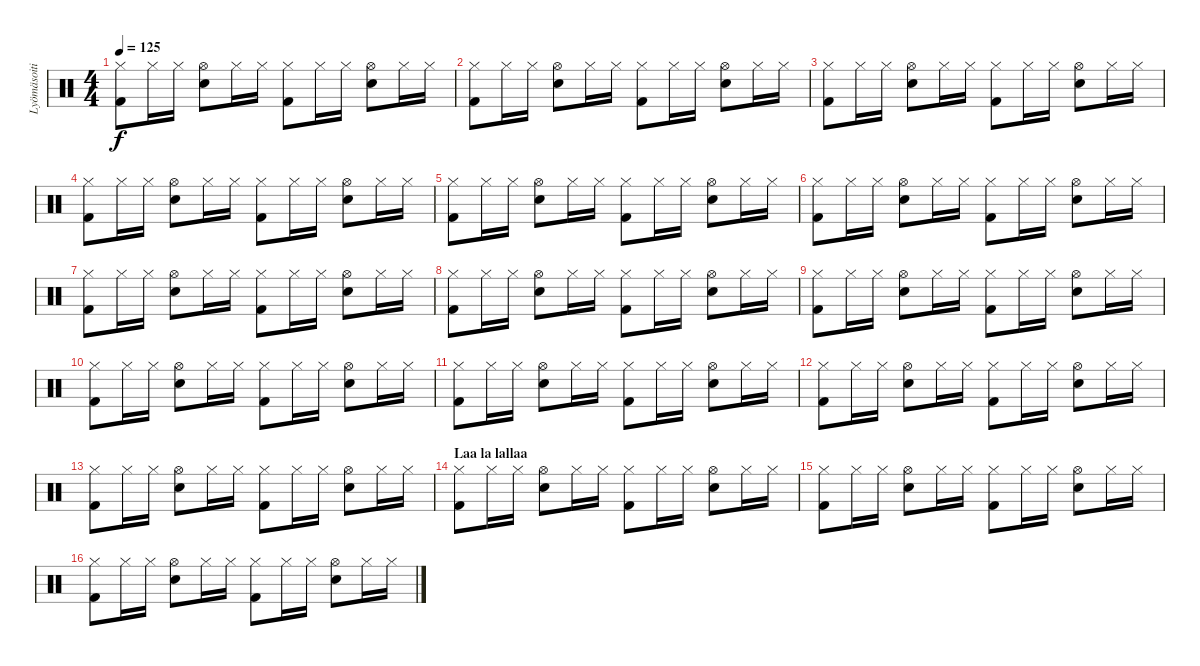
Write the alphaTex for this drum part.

\track ("Lyömäsoitin" "Lyömäsoiti") {instrument percussion}
\staff {score}
\articulation defaults
\ts (4 4)
\tempo 125
\clef neutral
\ks c
("Hi-Hat (closed)" "Kick (hit) 2").8{dy f} "Hi-Hat (closed)".16 "Hi-Hat (closed)".16 ("Hi-Hat (open)" "Snare (hit) 2").8 "Hi-Hat (closed)".16 "Hi-Hat (closed)".16 ("Hi-Hat (closed)" "Kick (hit) 2").8 "Hi-Hat (closed)".16 "Hi-Hat (closed)".16 ("Hi-Hat (open)" "Snare (hit) 2").8 "Hi-Hat (closed)".16 "Hi-Hat (closed)".16 |
("Hi-Hat (closed)" "Kick (hit) 2").8 "Hi-Hat (closed)".16 "Hi-Hat (closed)".16 ("Hi-Hat (open)" "Snare (hit) 2").8 "Hi-Hat (closed)".16 "Hi-Hat (closed)".16 ("Hi-Hat (closed)" "Kick (hit) 2").8 "Hi-Hat (closed)".16 "Hi-Hat (closed)".16 ("Hi-Hat (open)" "Snare (hit) 2").8 "Hi-Hat (closed)".16 "Hi-Hat (closed)".16 |
("Hi-Hat (closed)" "Kick (hit) 2").8 "Hi-Hat (closed)".16 "Hi-Hat (closed)".16 ("Hi-Hat (open)" "Snare (hit) 2").8 "Hi-Hat (closed)".16 "Hi-Hat (closed)".16 ("Hi-Hat (closed)" "Kick (hit) 2").8 "Hi-Hat (closed)".16 "Hi-Hat (closed)".16 ("Hi-Hat (open)" "Snare (hit) 2").8 "Hi-Hat (closed)".16 "Hi-Hat (closed)".16 |
("Hi-Hat (closed)" "Kick (hit) 2").8 "Hi-Hat (closed)".16 "Hi-Hat (closed)".16 ("Hi-Hat (open)" "Snare (hit) 2").8 "Hi-Hat (closed)".16 "Hi-Hat (closed)".16 ("Hi-Hat (closed)" "Kick (hit) 2").8 "Hi-Hat (closed)".16 "Hi-Hat (closed)".16 ("Hi-Hat (open)" "Snare (hit) 2").8 "Hi-Hat (closed)".16 "Hi-Hat (closed)".16 |
("Hi-Hat (closed)" "Kick (hit) 2").8 "Hi-Hat (closed)".16 "Hi-Hat (closed)".16 ("Hi-Hat (open)" "Snare (hit) 2").8 "Hi-Hat (closed)".16 "Hi-Hat (closed)".16 ("Hi-Hat (closed)" "Kick (hit) 2").8 "Hi-Hat (closed)".16 "Hi-Hat (closed)".16 ("Hi-Hat (open)" "Snare (hit) 2").8 "Hi-Hat (closed)".16 "Hi-Hat (closed)".16 |
("Hi-Hat (closed)" "Kick (hit) 2").8 "Hi-Hat (closed)".16 "Hi-Hat (closed)".16 ("Hi-Hat (open)" "Snare (hit) 2").8 "Hi-Hat (closed)".16 "Hi-Hat (closed)".16 ("Hi-Hat (closed)" "Kick (hit) 2").8 "Hi-Hat (closed)".16 "Hi-Hat (closed)".16 ("Hi-Hat (open)" "Snare (hit) 2").8 "Hi-Hat (closed)".16 "Hi-Hat (closed)".16 |
("Hi-Hat (closed)" "Kick (hit) 2").8 "Hi-Hat (closed)".16 "Hi-Hat (closed)".16 ("Hi-Hat (open)" "Snare (hit) 2").8 "Hi-Hat (closed)".16 "Hi-Hat (closed)".16 ("Hi-Hat (closed)" "Kick (hit) 2").8 "Hi-Hat (closed)".16 "Hi-Hat (closed)".16 ("Hi-Hat (open)" "Snare (hit) 2").8 "Hi-Hat (closed)".16 "Hi-Hat (closed)".16 |
("Hi-Hat (closed)" "Kick (hit) 2").8 "Hi-Hat (closed)".16 "Hi-Hat (closed)".16 ("Hi-Hat (open)" "Snare (hit) 2").8 "Hi-Hat (closed)".16 "Hi-Hat (closed)".16 ("Hi-Hat (closed)" "Kick (hit) 2").8 "Hi-Hat (closed)".16 "Hi-Hat (closed)".16 ("Hi-Hat (open)" "Snare (hit) 2").8 "Hi-Hat (closed)".16 "Hi-Hat (closed)".16 |
("Hi-Hat (closed)" "Kick (hit) 2").8 "Hi-Hat (closed)".16 "Hi-Hat (closed)".16 ("Hi-Hat (open)" "Snare (hit) 2").8 "Hi-Hat (closed)".16 "Hi-Hat (closed)".16 ("Hi-Hat (closed)" "Kick (hit) 2").8 "Hi-Hat (closed)".16 "Hi-Hat (closed)".16 ("Hi-Hat (open)" "Snare (hit) 2").8 "Hi-Hat (closed)".16 "Hi-Hat (closed)".16 |
("Hi-Hat (closed)" "Kick (hit) 2").8 "Hi-Hat (closed)".16 "Hi-Hat (closed)".16 ("Hi-Hat (open)" "Snare (hit) 2").8 "Hi-Hat (closed)".16 "Hi-Hat (closed)".16 ("Hi-Hat (closed)" "Kick (hit) 2").8 "Hi-Hat (closed)".16 "Hi-Hat (closed)".16 ("Hi-Hat (open)" "Snare (hit) 2").8 "Hi-Hat (closed)".16 "Hi-Hat (closed)".16 |
("Hi-Hat (closed)" "Kick (hit) 2").8 "Hi-Hat (closed)".16 "Hi-Hat (closed)".16 ("Hi-Hat (open)" "Snare (hit) 2").8 "Hi-Hat (closed)".16 "Hi-Hat (closed)".16 ("Hi-Hat (closed)" "Kick (hit) 2").8 "Hi-Hat (closed)".16 "Hi-Hat (closed)".16 ("Hi-Hat (open)" "Snare (hit) 2").8 "Hi-Hat (closed)".16 "Hi-Hat (closed)".16 |
("Hi-Hat (closed)" "Kick (hit) 2").8 "Hi-Hat (closed)".16 "Hi-Hat (closed)".16 ("Hi-Hat (open)" "Snare (hit) 2").8 "Hi-Hat (closed)".16 "Hi-Hat (closed)".16 ("Hi-Hat (closed)" "Kick (hit) 2").8 "Hi-Hat (closed)".16 "Hi-Hat (closed)".16 ("Hi-Hat (open)" "Snare (hit) 2").8 "Hi-Hat (closed)".16 "Hi-Hat (closed)".16 |
("Hi-Hat (closed)" "Kick (hit) 2").8 "Hi-Hat (closed)".16 "Hi-Hat (closed)".16 ("Hi-Hat (open)" "Snare (hit) 2").8 "Hi-Hat (closed)".16 "Hi-Hat (closed)".16 ("Hi-Hat (closed)" "Kick (hit) 2").8 "Hi-Hat (closed)".16 "Hi-Hat (closed)".16 ("Hi-Hat (open)" "Snare (hit) 2").8 "Hi-Hat (closed)".16 "Hi-Hat (closed)".16 |
\section ("" "Laa la lallaa")
("Hi-Hat (closed)" "Kick (hit) 2").8 "Hi-Hat (closed)".16 "Hi-Hat (closed)".16 ("Hi-Hat (open)" "Snare (hit) 2").8 "Hi-Hat (closed)".16 "Hi-Hat (closed)".16 ("Hi-Hat (closed)" "Kick (hit) 2").8 "Hi-Hat (closed)".16 "Hi-Hat (closed)".16 ("Hi-Hat (open)" "Snare (hit) 2").8 "Hi-Hat (closed)".16 "Hi-Hat (closed)".16 |
("Hi-Hat (closed)" "Kick (hit) 2").8 "Hi-Hat (closed)".16 "Hi-Hat (closed)".16 ("Hi-Hat (open)" "Snare (hit) 2").8 "Hi-Hat (closed)".16 "Hi-Hat (closed)".16 ("Hi-Hat (closed)" "Kick (hit) 2").8 "Hi-Hat (closed)".16 "Hi-Hat (closed)".16 ("Hi-Hat (open)" "Snare (hit) 2").8 "Hi-Hat (closed)".16 "Hi-Hat (closed)".16 |
("Hi-Hat (closed)" "Kick (hit) 2").8 "Hi-Hat (closed)".16 "Hi-Hat (closed)".16 ("Hi-Hat (open)" "Snare (hit) 2").8 "Hi-Hat (closed)".16 "Hi-Hat (closed)".16 ("Hi-Hat (closed)" "Kick (hit) 2").8 "Hi-Hat (closed)".16 "Hi-Hat (closed)".16 ("Hi-Hat (open)" "Snare (hit) 2").8 "Hi-Hat (closed)".16 "Hi-Hat (closed)".16
